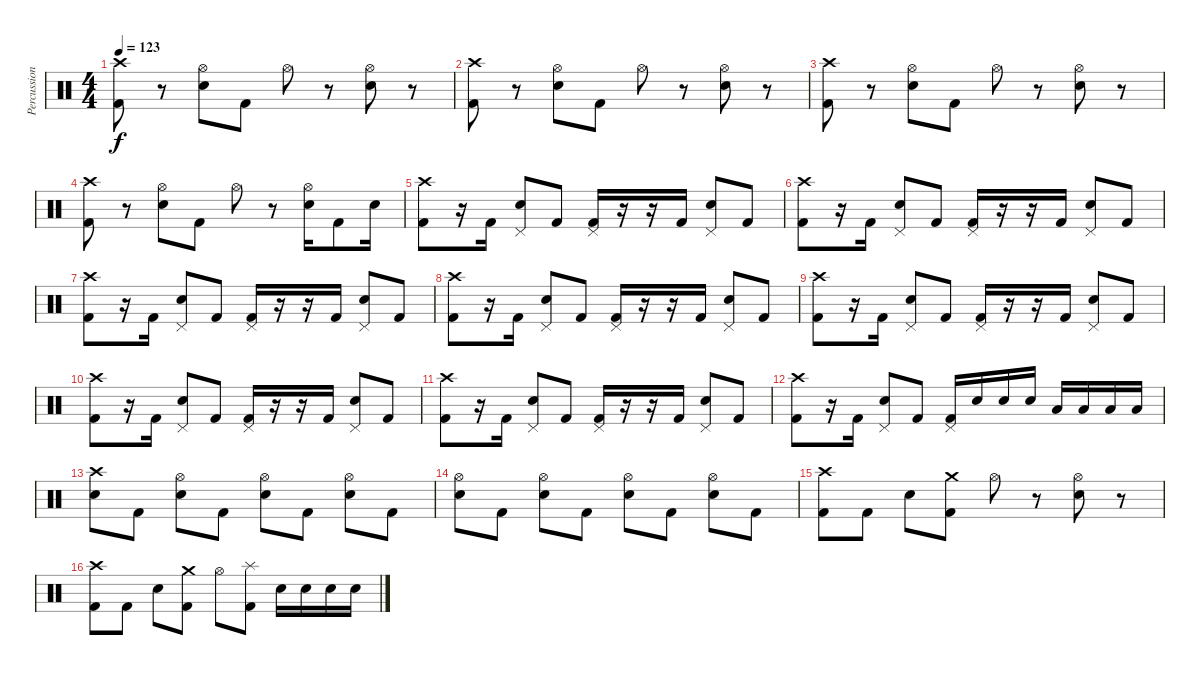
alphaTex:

\track ("Percussioni" "Percussion") {instrument percussion}
\staff {score}
\articulation defaults
\ts (4 4)
\tempo 123
\clef neutral
\ks c
("Crash high (hit)" "Kick (hit) 2").8{dy f} r.8 ("Hi-Hat (open)" "Electric Snare (hit)").8 "Kick (hit) 2".8 "Hi-Hat (open)".8 r.8 ("Hi-Hat (open)" "Electric Snare (hit)").8 r.8 |
("Crash high (hit)" "Kick (hit) 2").8 r.8 ("Hi-Hat (open)" "Electric Snare (hit)").8 "Kick (hit) 2".8 "Hi-Hat (open)".8 r.8 ("Hi-Hat (open)" "Electric Snare (hit)").8 r.8 |
("Crash high (hit)" "Kick (hit) 2").8 r.8 ("Hi-Hat (open)" "Electric Snare (hit)").8 "Kick (hit) 2".8 "Hi-Hat (open)".8 r.8 ("Hi-Hat (open)" "Electric Snare (hit)").8 r.8 |
("Crash high (hit)" "Kick (hit) 2").8 r.8 ("Hi-Hat (open)" "Electric Snare (hit)").8 "Kick (hit) 2".8 "Hi-Hat (open)".8 r.8 ("Hi-Hat (open)" "Electric Snare (hit)").16 "Kick (hit) 2".8 "Electric Snare (hit)".16 |
("Crash high (hit)" "Kick (hit) 2").8 r.16 "Kick (hit) 2".16 ("Pedal Hi-Hat (hit)" "Electric Snare (hit)").8 "Kick (hit) 2".8 ("Pedal Hi-Hat (hit)" "Kick (hit) 2").16 r.16 r.16 "Kick (hit) 2".16 ("Pedal Hi-Hat (hit)" "Electric Snare (hit)").8 "Kick (hit) 2".8 |
("Crash high (hit)" "Kick (hit) 2").8 r.16 "Kick (hit) 2".16 ("Pedal Hi-Hat (hit)" "Electric Snare (hit)").8 "Kick (hit) 2".8 ("Pedal Hi-Hat (hit)" "Kick (hit) 2").16 r.16 r.16 "Kick (hit) 2".16 ("Pedal Hi-Hat (hit)" "Electric Snare (hit)").8 "Kick (hit) 2".8 |
("Crash high (hit)" "Kick (hit) 2").8 r.16 "Kick (hit) 2".16 ("Pedal Hi-Hat (hit)" "Electric Snare (hit)").8 "Kick (hit) 2".8 ("Pedal Hi-Hat (hit)" "Kick (hit) 2").16 r.16 r.16 "Kick (hit) 2".16 ("Pedal Hi-Hat (hit)" "Electric Snare (hit)").8 "Kick (hit) 2".8 |
("Crash high (hit)" "Kick (hit) 2").8 r.16 "Kick (hit) 2".16 ("Pedal Hi-Hat (hit)" "Electric Snare (hit)").8 "Kick (hit) 2".8 ("Pedal Hi-Hat (hit)" "Kick (hit) 2").16 r.16 r.16 "Kick (hit) 2".16 ("Pedal Hi-Hat (hit)" "Electric Snare (hit)").8 "Kick (hit) 2".8 |
("Crash high (hit)" "Kick (hit) 2").8 r.16 "Kick (hit) 2".16 ("Pedal Hi-Hat (hit)" "Electric Snare (hit)").8 "Kick (hit) 2".8 ("Pedal Hi-Hat (hit)" "Kick (hit) 2").16 r.16 r.16 "Kick (hit) 2".16 ("Pedal Hi-Hat (hit)" "Electric Snare (hit)").8 "Kick (hit) 2".8 |
("Crash high (hit)" "Kick (hit) 2").8 r.16 "Kick (hit) 2".16 ("Pedal Hi-Hat (hit)" "Electric Snare (hit)").8 "Kick (hit) 2".8 ("Pedal Hi-Hat (hit)" "Kick (hit) 2").16 r.16 r.16 "Kick (hit) 2".16 ("Pedal Hi-Hat (hit)" "Electric Snare (hit)").8 "Kick (hit) 2".8 |
("Crash high (hit)" "Kick (hit) 2").8 r.16 "Kick (hit) 2".16 ("Pedal Hi-Hat (hit)" "Electric Snare (hit)").8 "Kick (hit) 2".8 ("Pedal Hi-Hat (hit)" "Kick (hit) 2").16 r.16 r.16 "Kick (hit) 2".16 ("Pedal Hi-Hat (hit)" "Electric Snare (hit)").8 "Kick (hit) 2".8 |
("Crash high (hit)" "Kick (hit) 2").8 r.16 "Kick (hit) 2".16 ("Pedal Hi-Hat (hit)" "Electric Snare (hit)").8 "Kick (hit) 2".8 ("Pedal Hi-Hat (hit)" "Kick (hit) 2").16 "Electric Snare (hit)".16 "Electric Snare (hit)".16 "Electric Snare (hit)".16 "Low Tom (hit)".16 "Low Tom (hit)".16 "Low Tom (hit)".16 "Low Tom (hit)".16 |
("Crash high (hit)" "Electric Snare (hit)").8 "Kick (hit) 2".8 ("Hi-Hat (open)" "Electric Snare (hit)").8 "Kick (hit) 2".8 ("Hi-Hat (open)" "Electric Snare (hit)").8 "Kick (hit) 2".8 ("Hi-Hat (open)" "Electric Snare (hit)").8 "Kick (hit) 2".8 |
("Hi-Hat (open)" "Electric Snare (hit)").8 "Kick (hit) 2".8 ("Hi-Hat (open)" "Electric Snare (hit)").8 "Kick (hit) 2".8 ("Hi-Hat (open)" "Electric Snare (hit)").8 "Kick (hit) 2".8 ("Hi-Hat (open)" "Electric Snare (hit)").8 "Kick (hit) 2".8 |
("Crash high (hit)" "Kick (hit) 2").8 "Kick (hit) 2".8 "Electric Snare (hit)".8 ("Crash medium (hit)" "Kick (hit) 2").8 "Hi-Hat (open)".8 r.8 ("Hi-Hat (open)" "Electric Snare (hit)").8 r.8 |
("Crash high (hit)" "Kick (hit) 2").8 "Kick (hit) 2".8 "Electric Snare (hit)".8 ("Crash medium (hit)" "Kick (hit) 2").8 "Hi-Hat (open)".8 ("Splash (hit)" "Kick (hit) 2").8 "Electric Snare (hit)".16 "Electric Snare (hit)".16 "Electric Snare (hit)".16 "Electric Snare (hit)".16
